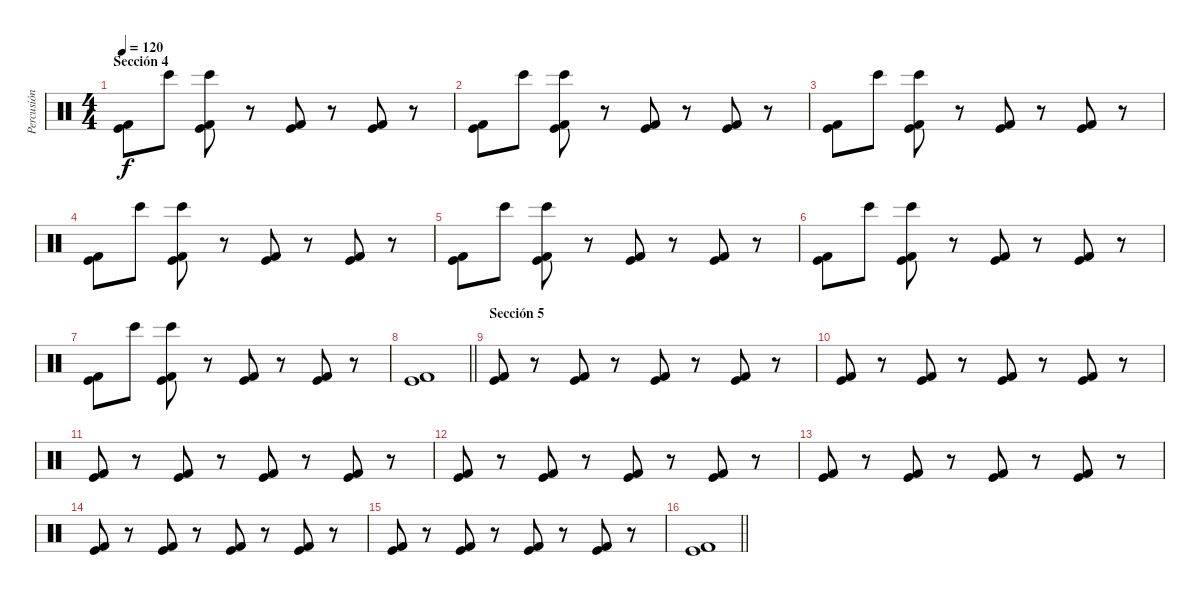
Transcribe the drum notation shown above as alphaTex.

\track ("Percusión 2" "Percusión ") {instrument percussion}
\staff {score}
\articulation defaults
\ts (4 4)
\section ("" "Sección 4")
\tempo 120
\clef neutral
\ks c
("Kick (hit)" "Kick (hit) 2").8{dy f} "Bongo High (hit)".8 ("Kick (hit) 2" "Kick (hit)" "Bongo High (hit)").8 r.8 ("Kick (hit) 2" "Kick (hit)").8 r.8 ("Kick (hit) 2" "Kick (hit)").8 r.8 |
("Kick (hit)" "Kick (hit) 2").8 "Bongo High (hit)".8 ("Kick (hit) 2" "Kick (hit)" "Bongo High (hit)").8 r.8 ("Kick (hit) 2" "Kick (hit)").8 r.8 ("Kick (hit) 2" "Kick (hit)").8 r.8 |
("Kick (hit)" "Kick (hit) 2").8 "Bongo High (hit)".8 ("Kick (hit) 2" "Kick (hit)" "Bongo High (hit)").8 r.8 ("Kick (hit) 2" "Kick (hit)").8 r.8 ("Kick (hit) 2" "Kick (hit)").8 r.8 |
("Kick (hit)" "Kick (hit) 2").8 "Bongo High (hit)".8 ("Kick (hit) 2" "Kick (hit)" "Bongo High (hit)").8 r.8 ("Kick (hit) 2" "Kick (hit)").8 r.8 ("Kick (hit) 2" "Kick (hit)").8 r.8 |
("Kick (hit)" "Kick (hit) 2").8 "Bongo High (hit)".8 ("Kick (hit) 2" "Kick (hit)" "Bongo High (hit)").8 r.8 ("Kick (hit) 2" "Kick (hit)").8 r.8 ("Kick (hit) 2" "Kick (hit)").8 r.8 |
("Kick (hit)" "Kick (hit) 2").8 "Bongo High (hit)".8 ("Kick (hit) 2" "Kick (hit)" "Bongo High (hit)").8 r.8 ("Kick (hit) 2" "Kick (hit)").8 r.8 ("Kick (hit) 2" "Kick (hit)").8 r.8 |
("Kick (hit)" "Kick (hit) 2").8 "Bongo High (hit)".8 ("Kick (hit) 2" "Kick (hit)" "Bongo High (hit)").8 r.8 ("Kick (hit) 2" "Kick (hit)").8 r.8 ("Kick (hit) 2" "Kick (hit)").8 r.8 |
\barLineRight lightlight
("Kick (hit)" "Kick (hit) 2").1 |
\section ("" "Sección 5")
("Kick (hit)" "Kick (hit) 2").8 r.8 ("Kick (hit) 2" "Kick (hit)").8 r.8 ("Kick (hit) 2" "Kick (hit)").8 r.8 ("Kick (hit) 2" "Kick (hit)").8 r.8 |
("Kick (hit)" "Kick (hit) 2").8 r.8 ("Kick (hit) 2" "Kick (hit)").8 r.8 ("Kick (hit) 2" "Kick (hit)").8 r.8 ("Kick (hit) 2" "Kick (hit)").8 r.8 |
("Kick (hit)" "Kick (hit) 2").8 r.8 ("Kick (hit) 2" "Kick (hit)").8 r.8 ("Kick (hit) 2" "Kick (hit)").8 r.8 ("Kick (hit) 2" "Kick (hit)").8 r.8 |
("Kick (hit)" "Kick (hit) 2").8 r.8 ("Kick (hit) 2" "Kick (hit)").8 r.8 ("Kick (hit) 2" "Kick (hit)").8 r.8 ("Kick (hit) 2" "Kick (hit)").8 r.8 |
("Kick (hit)" "Kick (hit) 2").8 r.8 ("Kick (hit) 2" "Kick (hit)").8 r.8 ("Kick (hit) 2" "Kick (hit)").8 r.8 ("Kick (hit) 2" "Kick (hit)").8 r.8 |
("Kick (hit)" "Kick (hit) 2").8 r.8 ("Kick (hit) 2" "Kick (hit)").8 r.8 ("Kick (hit) 2" "Kick (hit)").8 r.8 ("Kick (hit) 2" "Kick (hit)").8 r.8 |
("Kick (hit)" "Kick (hit) 2").8 r.8 ("Kick (hit) 2" "Kick (hit)").8 r.8 ("Kick (hit) 2" "Kick (hit)").8 r.8 ("Kick (hit) 2" "Kick (hit)").8 r.8 |
\barLineRight lightlight
("Kick (hit)" "Kick (hit) 2").1
